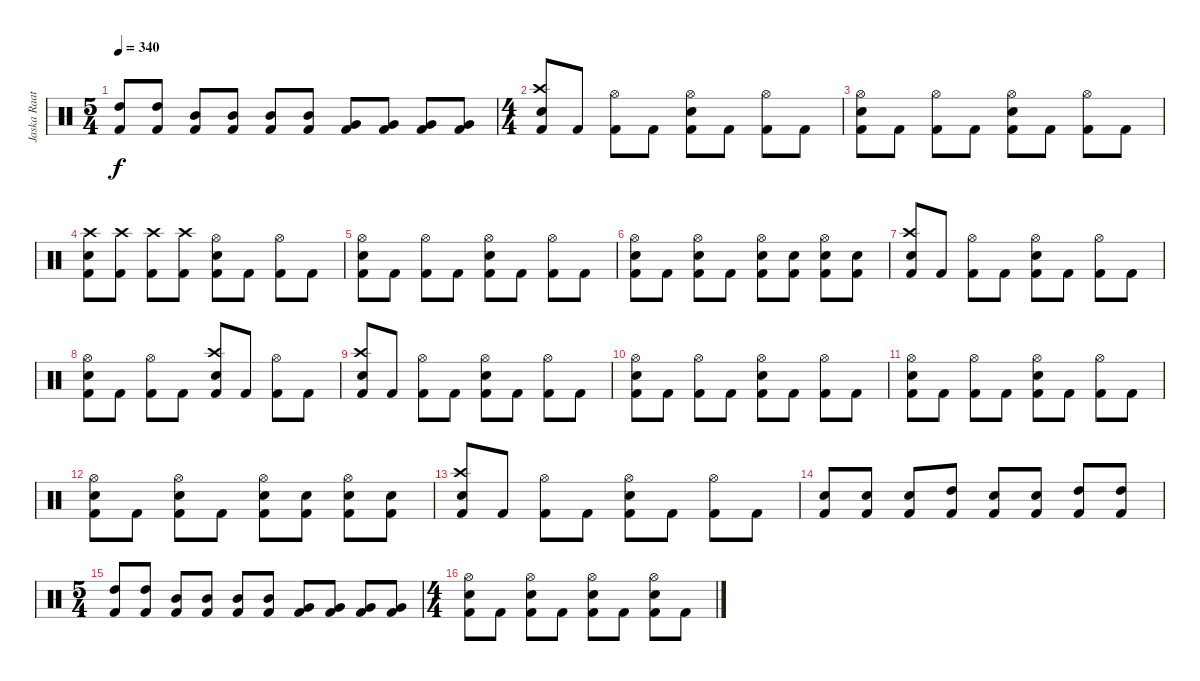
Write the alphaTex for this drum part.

\track ("Jaska Raatkinen" "Jaska Raat") {instrument percussion}
\staff {score}
\articulation defaults
\ts (5 4)
\tempo 340
\clef neutral
\ks c
("High Tom (hit)" "Kick (hit) 2").8{dy f} ("High Tom (hit)" "Kick (hit) 2").8 ("Mid Tom (hit)" "Kick (hit) 2").8 ("Mid Tom (hit)" "Kick (hit) 2").8 ("Mid Tom (hit)" "Kick (hit) 2").8 ("Mid Tom (hit)" "Kick (hit) 2").8 ("Very Low Tom (hit)" "Kick (hit) 2").8 ("Very Low Tom (hit)" "Kick (hit) 2").8 ("Very Low Tom (hit)" "Kick (hit) 2").8 ("Very Low Tom (hit)" "Kick (hit) 2").8 |
\ts (4 4)
("Crash high (hit)" "Snare (hit) 2" "Kick (hit) 2").8 "Kick (hit) 2".8 ("Hi-Hat (open)" "Kick (hit) 2").8 "Kick (hit) 2".8 ("Hi-Hat (open)" "Snare (hit) 2" "Kick (hit) 2").8 "Kick (hit) 2".8 ("Hi-Hat (open)" "Kick (hit) 2").8 "Kick (hit) 2".8 |
("Hi-Hat (open)" "Snare (hit) 2" "Kick (hit) 2").8 "Kick (hit) 2".8 ("Hi-Hat (open)" "Kick (hit) 2").8 "Kick (hit) 2".8 ("Hi-Hat (open)" "Snare (hit) 2" "Kick (hit) 2").8 "Kick (hit) 2".8 ("Hi-Hat (open)" "Kick (hit) 2").8 "Kick (hit) 2".8 |
("Crash high (hit)" "Snare (hit) 2" "Kick (hit) 2").8 ("Crash high (hit)" "Kick (hit) 2").8 ("Crash high (hit)" "Kick (hit) 2").8 ("Crash high (hit)" "Kick (hit) 2").8 ("Hi-Hat (open)" "Snare (hit) 2" "Kick (hit) 2").8 "Kick (hit) 2".8 ("Hi-Hat (open)" "Kick (hit) 2").8 "Kick (hit) 2".8 |
("Hi-Hat (open)" "Snare (hit) 2" "Kick (hit) 2").8 "Kick (hit) 2".8 ("Hi-Hat (open)" "Kick (hit) 2").8 "Kick (hit) 2".8 ("Hi-Hat (open)" "Snare (hit) 2" "Kick (hit) 2").8 "Kick (hit) 2".8 ("Hi-Hat (open)" "Kick (hit) 2").8 "Kick (hit) 2".8 |
("Hi-Hat (open)" "Snare (hit) 2" "Kick (hit) 2").8 "Kick (hit) 2".8 ("Hi-Hat (open)" "Snare (hit) 2" "Kick (hit) 2").8 "Kick (hit) 2".8 ("Hi-Hat (open)" "Snare (hit) 2" "Kick (hit) 2").8 ("Snare (hit) 2" "Kick (hit) 2").8 ("Hi-Hat (open)" "Snare (hit) 2" "Kick (hit) 2").8 ("Snare (hit) 2" "Kick (hit) 2").8 |
("Crash high (hit)" "Snare (hit) 2" "Kick (hit) 2").8 "Kick (hit) 2".8 ("Hi-Hat (open)" "Kick (hit) 2").8 "Kick (hit) 2".8 ("Hi-Hat (open)" "Snare (hit) 2" "Kick (hit) 2").8 "Kick (hit) 2".8 ("Hi-Hat (open)" "Kick (hit) 2").8 "Kick (hit) 2".8 |
("Hi-Hat (open)" "Snare (hit) 2" "Kick (hit) 2").8 "Kick (hit) 2".8 ("Hi-Hat (open)" "Kick (hit) 2").8 "Kick (hit) 2".8 ("Crash high (hit)" "Snare (hit) 2" "Kick (hit) 2").8 "Kick (hit) 2".8 ("Hi-Hat (open)" "Kick (hit) 2").8 "Kick (hit) 2".8 |
("Crash high (hit)" "Snare (hit) 2" "Kick (hit) 2").8 "Kick (hit) 2".8 ("Hi-Hat (open)" "Kick (hit) 2").8 "Kick (hit) 2".8 ("Hi-Hat (open)" "Snare (hit) 2" "Kick (hit) 2").8 "Kick (hit) 2".8 ("Hi-Hat (open)" "Kick (hit) 2").8 "Kick (hit) 2".8 |
("Hi-Hat (open)" "Snare (hit) 2" "Kick (hit) 2").8 "Kick (hit) 2".8 ("Hi-Hat (open)" "Kick (hit) 2").8 "Kick (hit) 2".8 ("Hi-Hat (open)" "Snare (hit) 2" "Kick (hit) 2").8 "Kick (hit) 2".8 ("Hi-Hat (open)" "Kick (hit) 2").8 "Kick (hit) 2".8 |
("Hi-Hat (open)" "Snare (hit) 2" "Kick (hit) 2").8 "Kick (hit) 2".8 ("Hi-Hat (open)" "Kick (hit) 2").8 "Kick (hit) 2".8 ("Hi-Hat (open)" "Snare (hit) 2" "Kick (hit) 2").8 "Kick (hit) 2".8 ("Hi-Hat (open)" "Kick (hit) 2").8 "Kick (hit) 2".8 |
("Hi-Hat (open)" "Snare (hit) 2" "Kick (hit) 2").8 "Kick (hit) 2".8 ("Hi-Hat (open)" "Snare (hit) 2" "Kick (hit) 2").8 "Kick (hit) 2".8 ("Hi-Hat (open)" "Snare (hit) 2" "Kick (hit) 2").8 ("Snare (hit) 2" "Kick (hit) 2").8 ("Hi-Hat (open)" "Snare (hit) 2" "Kick (hit) 2").8 ("Snare (hit) 2" "Kick (hit) 2").8 |
("Crash high (hit)" "Snare (hit) 2" "Kick (hit) 2").8 "Kick (hit) 2".8 ("Hi-Hat (open)" "Kick (hit) 2").8 "Kick (hit) 2".8 ("Hi-Hat (open)" "Snare (hit) 2" "Kick (hit) 2").8 "Kick (hit) 2".8 ("Hi-Hat (open)" "Kick (hit) 2").8 "Kick (hit) 2".8 |
("Snare (hit) 2" "Kick (hit) 2").8 ("Snare (hit) 2" "Kick (hit) 2").8 ("Snare (hit) 2" "Kick (hit) 2").8 ("High Tom (hit)" "Kick (hit) 2").8 ("Snare (hit) 2" "Kick (hit) 2").8 ("Snare (hit) 2" "Kick (hit) 2").8 ("High Tom (hit)" "Kick (hit) 2").8 ("High Tom (hit)" "Kick (hit) 2").8 |
\ts (5 4)
("High Tom (hit)" "Kick (hit) 2").8 ("High Tom (hit)" "Kick (hit) 2").8 ("Mid Tom (hit)" "Kick (hit) 2").8 ("Mid Tom (hit)" "Kick (hit) 2").8 ("Mid Tom (hit)" "Kick (hit) 2").8 ("Mid Tom (hit)" "Kick (hit) 2").8 ("Very Low Tom (hit)" "Kick (hit) 2").8 ("Very Low Tom (hit)" "Kick (hit) 2").8 ("Very Low Tom (hit)" "Kick (hit) 2").8 ("Very Low Tom (hit)" "Kick (hit) 2").8 |
\ts (4 4)
("Hi-Hat (open)" "Snare (hit) 2" "Kick (hit) 2").8 "Kick (hit) 2".8 ("Hi-Hat (open)" "Snare (hit) 2" "Kick (hit) 2").8 "Kick (hit) 2".8 ("Hi-Hat (open)" "Snare (hit) 2" "Kick (hit) 2").8 "Kick (hit) 2".8 ("Hi-Hat (open)" "Snare (hit) 2" "Kick (hit) 2").8 "Kick (hit) 2".8
